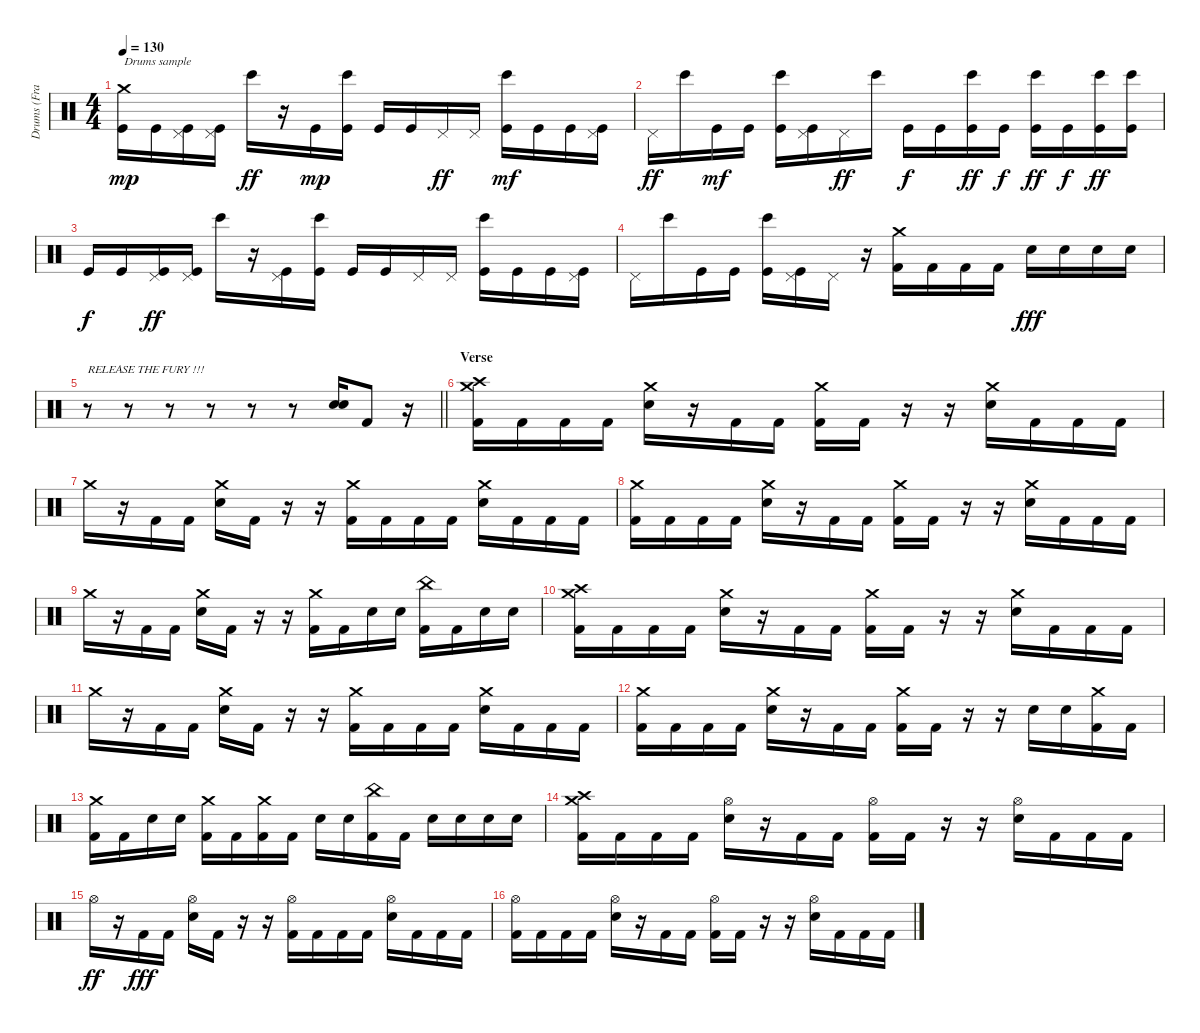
\track ("Drums (Franky)" "Drums (Fra") {instrument percussion}
\staff {score}
\articulation defaults
\ts (4 4)
\tempo 130
\clef neutral
\ks c
("Crash medium (hit)" "Kick (hit)").16{txt "Drums sample" dy mp} "Kick (hit)".16 ("Pedal Hi-Hat (hit)" "Kick (hit)").16 ("Pedal Hi-Hat (hit)" "Kick (hit)").16 "Bongo High (hit)".16{dy ff} r.16 "Kick (hit)".16{dy mp} ("Bongo High (hit)" "Kick (hit)").16 "Kick (hit)".16 "Kick (hit)".16 "Pedal Hi-Hat (hit)".16{dy ff} "Pedal Hi-Hat (hit)".16 ("Bongo High (hit)" "Kick (hit)").16{dy mf} "Kick (hit)".16 "Kick (hit)".16 ("Pedal Hi-Hat (hit)" "Kick (hit)").16 |
"Pedal Hi-Hat (hit)".16{dy ff} "Bongo High (hit)".16 "Kick (hit)".16{dy mf} "Kick (hit)".16 ("Bongo High (hit)" "Kick (hit)").16 ("Pedal Hi-Hat (hit)" "Kick (hit)").16 "Pedal Hi-Hat (hit)".16{dy ff} "Bongo High (hit)".16 "Kick (hit)".16{dy f} "Kick (hit)".16 ("Bongo High (hit)" "Kick (hit)").16{dy ff} "Kick (hit)".16{dy f} ("Bongo High (hit)" "Kick (hit)").16{dy ff} "Kick (hit)".16{dy f} ("Bongo High (hit)" "Kick (hit)").16{dy ff} ("Bongo High (hit)" "Kick (hit)").16 |
"Kick (hit)".16{dy f} "Kick (hit)".16 ("Pedal Hi-Hat (hit)" "Kick (hit)").16{dy ff} ("Pedal Hi-Hat (hit)" "Kick (hit)").16 "Bongo High (hit)".16 r.16 ("Pedal Hi-Hat (hit)" "Kick (hit)").16 ("Bongo High (hit)" "Kick (hit)").16 "Kick (hit)".16 "Kick (hit)".16 "Pedal Hi-Hat (hit)".16 "Pedal Hi-Hat (hit)".16 ("Bongo High (hit)" "Kick (hit)").16 "Kick (hit)".16 "Kick (hit)".16 ("Pedal Hi-Hat (hit)" "Kick (hit)").16 |
"Pedal Hi-Hat (hit)".16 "Bongo High (hit)".16 "Kick (hit)".16 "Kick (hit)".16 ("Bongo High (hit)" "Kick (hit)").16 ("Pedal Hi-Hat (hit)" "Kick (hit)").16 "Pedal Hi-Hat (hit)".16 r.16 ("Crash medium (hit)" "Kick (hit) 2").16 "Kick (hit) 2".16 "Kick (hit) 2".16 "Kick (hit) 2".16 "Electric Snare (hit)".16{dy fff} "Electric Snare (hit)".16 "Electric Snare (hit)".16 "Electric Snare (hit)".16 |
\barLineRight lightlight
r.8{txt "RELEASE THE FURY !!!"} r.8 r.8 r.8 r.8 r.8 ("Electric Snare (hit)" "Electric Snare (hit)").16{bd 480} "Kick (hit) 2".8 r.16 |
\section ("" "Verse")
("Crash medium (hit)" "Crash high (hit)" "Kick (hit) 2").16 "Kick (hit) 2".16 "Kick (hit) 2".16 "Kick (hit) 2".16 ("Crash medium (hit)" "Electric Snare (hit)").16 r.16 "Kick (hit) 2".16 "Kick (hit) 2".16 ("Crash medium (hit)" "Kick (hit) 2").16 "Kick (hit) 2".16 r.16 r.16 ("Crash medium (hit)" "Electric Snare (hit)").16 "Kick (hit) 2".16 "Kick (hit) 2".16 "Kick (hit) 2".16 |
"Crash medium (hit)".16 r.16 "Kick (hit) 2".16 "Kick (hit) 2".16 ("Crash medium (hit)" "Electric Snare (hit)").16 "Kick (hit) 2".16 r.16 r.16 ("Crash medium (hit)" "Kick (hit) 2").16 "Kick (hit) 2".16 "Kick (hit) 2".16 "Kick (hit) 2".16 ("Crash medium (hit)" "Electric Snare (hit)").16 "Kick (hit) 2".16 "Kick (hit) 2".16 "Kick (hit) 2".16 |
("Crash medium (hit)" "Kick (hit) 2").16 "Kick (hit) 2".16 "Kick (hit) 2".16 "Kick (hit) 2".16 ("Crash medium (hit)" "Electric Snare (hit)").16 r.16 "Kick (hit) 2".16 "Kick (hit) 2".16 ("Crash medium (hit)" "Kick (hit) 2").16 "Kick (hit) 2".16 r.16 r.16 ("Crash medium (hit)" "Electric Snare (hit)").16 "Kick (hit) 2".16 "Kick (hit) 2".16 "Kick (hit) 2".16 |
"Crash medium (hit)".16 r.16 "Kick (hit) 2".16 "Kick (hit) 2".16 ("Crash medium (hit)" "Electric Snare (hit)").16 "Kick (hit) 2".16 r.16 r.16 ("Crash medium (hit)" "Kick (hit) 2").16 "Kick (hit) 2".16 "Electric Snare (hit)".16 "Electric Snare (hit)".16 ("China (hit)" "Kick (hit) 2").16 "Kick (hit) 2".16 "Electric Snare (hit)".16 "Electric Snare (hit)".16 |
("Crash medium (hit)" "Crash high (hit)" "Kick (hit) 2").16 "Kick (hit) 2".16 "Kick (hit) 2".16 "Kick (hit) 2".16 ("Crash medium (hit)" "Electric Snare (hit)").16 r.16 "Kick (hit) 2".16 "Kick (hit) 2".16 ("Crash medium (hit)" "Kick (hit) 2").16 "Kick (hit) 2".16 r.16 r.16 ("Crash medium (hit)" "Electric Snare (hit)").16 "Kick (hit) 2".16 "Kick (hit) 2".16 "Kick (hit) 2".16 |
"Crash medium (hit)".16 r.16 "Kick (hit) 2".16 "Kick (hit) 2".16 ("Crash medium (hit)" "Electric Snare (hit)").16 "Kick (hit) 2".16 r.16 r.16 ("Crash medium (hit)" "Kick (hit) 2").16 "Kick (hit) 2".16 "Kick (hit) 2".16 "Kick (hit) 2".16 ("Crash medium (hit)" "Electric Snare (hit)").16 "Kick (hit) 2".16 "Kick (hit) 2".16 "Kick (hit) 2".16 |
("Crash medium (hit)" "Kick (hit) 2").16 "Kick (hit) 2".16 "Kick (hit) 2".16 "Kick (hit) 2".16 ("Crash medium (hit)" "Electric Snare (hit)").16 r.16 "Kick (hit) 2".16 "Kick (hit) 2".16 ("Crash medium (hit)" "Kick (hit) 2").16 "Kick (hit) 2".16 r.16 r.16 "Electric Snare (hit)".16 "Electric Snare (hit)".16 ("Crash medium (hit)" "Kick (hit) 2").16 "Kick (hit) 2".16 |
("Crash medium (hit)" "Kick (hit) 2").16 "Kick (hit) 2".16 "Electric Snare (hit)".16 "Electric Snare (hit)".16 ("Crash medium (hit)" "Kick (hit) 2").16 "Kick (hit) 2".16 ("Crash medium (hit)" "Kick (hit) 2").16 "Kick (hit) 2".16 "Electric Snare (hit)".16 "Electric Snare (hit)".16 ("China (hit)" "Kick (hit) 2").16 "Kick (hit) 2".16 "Electric Snare (hit)".16 "Electric Snare (hit)".16 "Electric Snare (hit)".16 "Electric Snare (hit)".16 |
("Crash medium (hit)" "Crash high (hit)" "Kick (hit) 2").16 "Kick (hit) 2".16 "Kick (hit) 2".16 "Kick (hit) 2".16 ("Hi-Hat (open)" "Electric Snare (hit)").16 r.16 "Kick (hit) 2".16 "Kick (hit) 2".16 ("Hi-Hat (open)" "Kick (hit) 2").16 "Kick (hit) 2".16 r.16 r.16 ("Hi-Hat (open)" "Electric Snare (hit)").16 "Kick (hit) 2".16 "Kick (hit) 2".16 "Kick (hit) 2".16 |
"Hi-Hat (open)".16{dy ff} r.16 "Kick (hit) 2".16{dy fff} "Kick (hit) 2".16 ("Hi-Hat (open)" "Electric Snare (hit)").16 "Kick (hit) 2".16 r.16 r.16 ("Hi-Hat (open)" "Kick (hit) 2").16 "Kick (hit) 2".16 "Kick (hit) 2".16 "Kick (hit) 2".16 ("Hi-Hat (open)" "Electric Snare (hit)").16 "Kick (hit) 2".16 "Kick (hit) 2".16 "Kick (hit) 2".16 |
("Hi-Hat (open)" "Kick (hit) 2").16 "Kick (hit) 2".16 "Kick (hit) 2".16 "Kick (hit) 2".16 ("Hi-Hat (open)" "Electric Snare (hit)").16 r.16 "Kick (hit) 2".16 "Kick (hit) 2".16 ("Hi-Hat (open)" "Kick (hit) 2").16 "Kick (hit) 2".16 r.16 r.16 ("Hi-Hat (open)" "Electric Snare (hit)").16 "Kick (hit) 2".16 "Kick (hit) 2".16 "Kick (hit) 2".16
